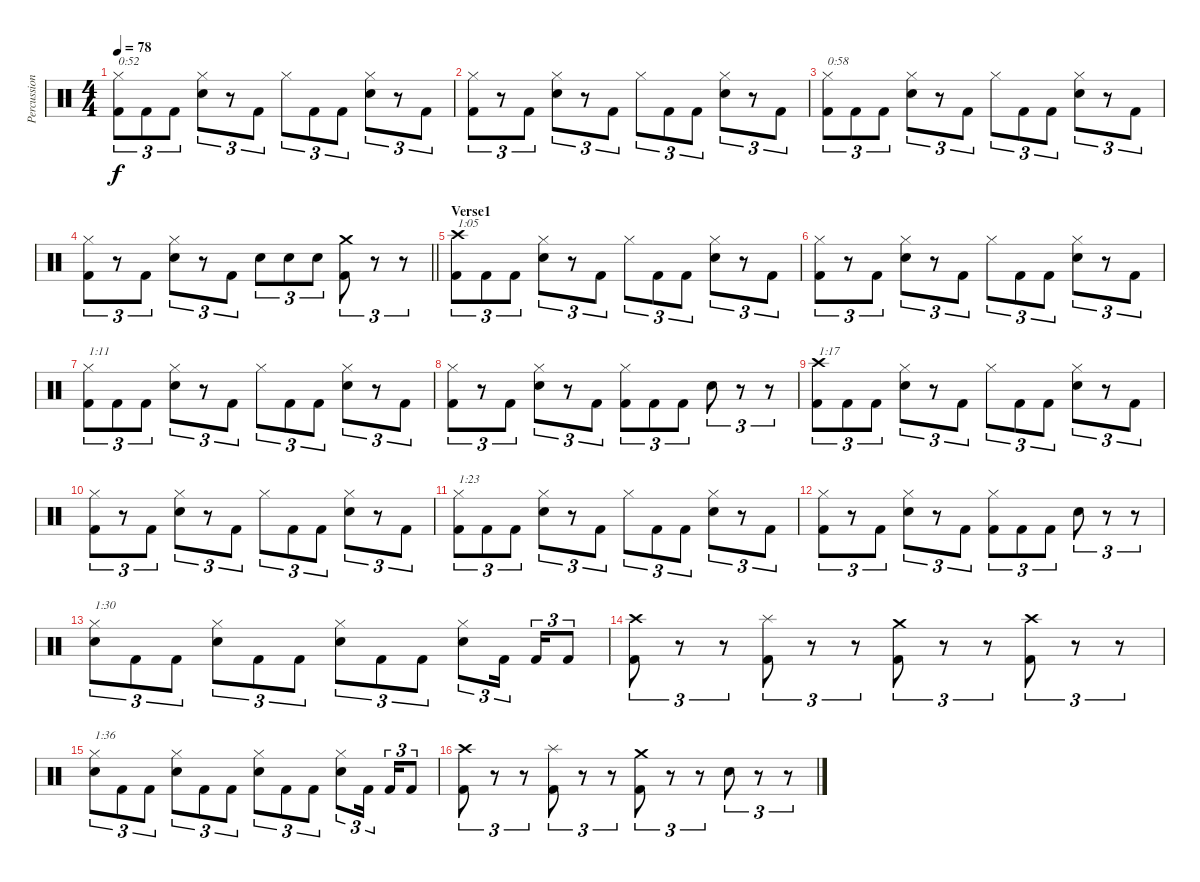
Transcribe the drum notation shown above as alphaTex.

\track ("Percussion" "Percussion") {instrument percussion}
\staff {score}
\articulation defaults
\ts (4 4)
\tempo 78
\clef neutral
\ks c
("Hi-Hat (closed)" "Kick (hit) 2").8{tu (3 2) txt "0:52" dy f} "Kick (hit) 2".8{tu (3 2)} "Kick (hit) 2".8{tu (3 2)} ("Hi-Hat (closed)" "Electric Snare (hit)").8{tu (3 2)} r.8{tu (3 2)} "Kick (hit) 2".8{tu (3 2)} "Hi-Hat (closed)".8{tu (3 2)} "Kick (hit) 2".8{tu (3 2)} "Kick (hit) 2".8{tu (3 2)} ("Hi-Hat (closed)" "Electric Snare (hit)").8{tu (3 2)} r.8{tu (3 2)} "Kick (hit) 2".8{tu (3 2)} |
("Hi-Hat (closed)" "Kick (hit) 2").8{tu (3 2)} r.8{tu (3 2)} "Kick (hit) 2".8{tu (3 2)} ("Hi-Hat (closed)" "Electric Snare (hit)").8{tu (3 2)} r.8{tu (3 2)} "Kick (hit) 2".8{tu (3 2)} "Hi-Hat (closed)".8{tu (3 2)} "Kick (hit) 2".8{tu (3 2)} "Kick (hit) 2".8{tu (3 2)} ("Hi-Hat (closed)" "Electric Snare (hit)").8{tu (3 2)} r.8{tu (3 2)} "Kick (hit) 2".8{tu (3 2)} |
("Hi-Hat (closed)" "Kick (hit) 2").8{tu (3 2) txt "0:58"} "Kick (hit) 2".8{tu (3 2)} "Kick (hit) 2".8{tu (3 2)} ("Hi-Hat (closed)" "Electric Snare (hit)").8{tu (3 2)} r.8{tu (3 2)} "Kick (hit) 2".8{tu (3 2)} "Hi-Hat (closed)".8{tu (3 2)} "Kick (hit) 2".8{tu (3 2)} "Kick (hit) 2".8{tu (3 2)} ("Hi-Hat (closed)" "Electric Snare (hit)").8{tu (3 2)} r.8{tu (3 2)} "Kick (hit) 2".8{tu (3 2)} |
\barLineRight lightlight
("Hi-Hat (closed)" "Kick (hit) 2").8{tu (3 2)} r.8{tu (3 2)} "Kick (hit) 2".8{tu (3 2)} ("Hi-Hat (closed)" "Electric Snare (hit)").8{tu (3 2)} r.8{tu (3 2)} "Kick (hit) 2".8{tu (3 2)} "Electric Snare (hit)".8{tu (3 2)} "Electric Snare (hit)".8{tu (3 2)} "Electric Snare (hit)".8{tu (3 2)} ("Crash medium (hit)" "Kick (hit) 2").8{tu (3 2)} r.8{tu (3 2)} r.8{tu (3 2)} |
\section ("" "Verse1")
("Crash high (hit)" "Kick (hit) 2").8{tu (3 2) txt "1:05"} "Kick (hit) 2".8{tu (3 2)} "Kick (hit) 2".8{tu (3 2)} ("Hi-Hat (closed)" "Electric Snare (hit)").8{tu (3 2)} r.8{tu (3 2)} "Kick (hit) 2".8{tu (3 2)} "Hi-Hat (closed)".8{tu (3 2)} "Kick (hit) 2".8{tu (3 2)} "Kick (hit) 2".8{tu (3 2)} ("Hi-Hat (closed)" "Electric Snare (hit)").8{tu (3 2)} r.8{tu (3 2)} "Kick (hit) 2".8{tu (3 2)} |
("Hi-Hat (closed)" "Kick (hit) 2").8{tu (3 2)} r.8{tu (3 2)} "Kick (hit) 2".8{tu (3 2)} ("Hi-Hat (closed)" "Electric Snare (hit)").8{tu (3 2)} r.8{tu (3 2)} "Kick (hit) 2".8{tu (3 2)} "Hi-Hat (closed)".8{tu (3 2)} "Kick (hit) 2".8{tu (3 2)} "Kick (hit) 2".8{tu (3 2)} ("Hi-Hat (closed)" "Electric Snare (hit)").8{tu (3 2)} r.8{tu (3 2)} "Kick (hit) 2".8{tu (3 2)} |
("Hi-Hat (closed)" "Kick (hit) 2").8{tu (3 2) txt "1:11"} "Kick (hit) 2".8{tu (3 2)} "Kick (hit) 2".8{tu (3 2)} ("Hi-Hat (closed)" "Electric Snare (hit)").8{tu (3 2)} r.8{tu (3 2)} "Kick (hit) 2".8{tu (3 2)} "Hi-Hat (closed)".8{tu (3 2)} "Kick (hit) 2".8{tu (3 2)} "Kick (hit) 2".8{tu (3 2)} ("Hi-Hat (closed)" "Electric Snare (hit)").8{tu (3 2)} r.8{tu (3 2)} "Kick (hit) 2".8{tu (3 2)} |
("Hi-Hat (closed)" "Kick (hit) 2").8{tu (3 2)} r.8{tu (3 2)} "Kick (hit) 2".8{tu (3 2)} ("Hi-Hat (closed)" "Electric Snare (hit)").8{tu (3 2)} r.8{tu (3 2)} "Kick (hit) 2".8{tu (3 2)} ("Hi-Hat (closed)" "Kick (hit) 2").8{tu (3 2)} "Kick (hit) 2".8{tu (3 2)} "Kick (hit) 2".8{tu (3 2)} "Electric Snare (hit)".8{tu (3 2)} r.8{tu (3 2)} r.8{tu (3 2)} |
("Crash high (hit)" "Kick (hit) 2").8{tu (3 2) txt "1:17"} "Kick (hit) 2".8{tu (3 2)} "Kick (hit) 2".8{tu (3 2)} ("Hi-Hat (closed)" "Electric Snare (hit)").8{tu (3 2)} r.8{tu (3 2)} "Kick (hit) 2".8{tu (3 2)} "Hi-Hat (closed)".8{tu (3 2)} "Kick (hit) 2".8{tu (3 2)} "Kick (hit) 2".8{tu (3 2)} ("Hi-Hat (closed)" "Electric Snare (hit)").8{tu (3 2)} r.8{tu (3 2)} "Kick (hit) 2".8{tu (3 2)} |
("Hi-Hat (closed)" "Kick (hit) 2").8{tu (3 2)} r.8{tu (3 2)} "Kick (hit) 2".8{tu (3 2)} ("Hi-Hat (closed)" "Electric Snare (hit)").8{tu (3 2)} r.8{tu (3 2)} "Kick (hit) 2".8{tu (3 2)} "Hi-Hat (closed)".8{tu (3 2)} "Kick (hit) 2".8{tu (3 2)} "Kick (hit) 2".8{tu (3 2)} ("Hi-Hat (closed)" "Electric Snare (hit)").8{tu (3 2)} r.8{tu (3 2)} "Kick (hit) 2".8{tu (3 2)} |
("Hi-Hat (closed)" "Kick (hit) 2").8{tu (3 2) txt "1:23"} "Kick (hit) 2".8{tu (3 2)} "Kick (hit) 2".8{tu (3 2)} ("Hi-Hat (closed)" "Electric Snare (hit)").8{tu (3 2)} r.8{tu (3 2)} "Kick (hit) 2".8{tu (3 2)} "Hi-Hat (closed)".8{tu (3 2)} "Kick (hit) 2".8{tu (3 2)} "Kick (hit) 2".8{tu (3 2)} ("Hi-Hat (closed)" "Electric Snare (hit)").8{tu (3 2)} r.8{tu (3 2)} "Kick (hit) 2".8{tu (3 2)} |
("Hi-Hat (closed)" "Kick (hit) 2").8{tu (3 2)} r.8{tu (3 2)} "Kick (hit) 2".8{tu (3 2)} ("Hi-Hat (closed)" "Electric Snare (hit)").8{tu (3 2)} r.8{tu (3 2)} "Kick (hit) 2".8{tu (3 2)} ("Hi-Hat (closed)" "Kick (hit) 2").8{tu (3 2)} "Kick (hit) 2".8{tu (3 2)} "Kick (hit) 2".8{tu (3 2)} "Electric Snare (hit)".8{tu (3 2)} r.8{tu (3 2)} r.8{tu (3 2)} |
("Hi-Hat (closed)" "Electric Snare (hit)").8{tu (3 2) txt "1:30"} "Kick (hit) 2".8{tu (3 2)} "Kick (hit) 2".8{tu (3 2)} ("Hi-Hat (closed)" "Electric Snare (hit)").8{tu (3 2)} "Kick (hit) 2".8{tu (3 2)} "Kick (hit) 2".8{tu (3 2)} ("Hi-Hat (closed)" "Electric Snare (hit)").8{tu (3 2)} "Kick (hit) 2".8{tu (3 2)} "Kick (hit) 2".8{tu (3 2)} ("Hi-Hat (closed)" "Electric Snare (hit)").8{tu (3 2)} "Kick (hit) 2".16{tu (3 2)} "Kick (hit) 2".16{tu (3 2)} "Kick (hit) 2".8{tu (3 2)} |
("Crash high (hit)" "Kick (hit) 2").8{tu (3 2)} r.8{tu (3 2)} r.8{tu (3 2)} ("Splash (hit)" "Kick (hit) 2").8{tu (3 2)} r.8{tu (3 2)} r.8{tu (3 2)} ("Crash medium (hit)" "Kick (hit) 2").8{tu (3 2)} r.8{tu (3 2)} r.8{tu (3 2)} ("Crash high (hit)" "Kick (hit) 2").8{tu (3 2)} r.8{tu (3 2)} r.8{tu (3 2)} |
("Hi-Hat (closed)" "Electric Snare (hit)").8{tu (3 2) txt "1:36"} "Kick (hit) 2".8{tu (3 2)} "Kick (hit) 2".8{tu (3 2)} ("Hi-Hat (closed)" "Electric Snare (hit)").8{tu (3 2)} "Kick (hit) 2".8{tu (3 2)} "Kick (hit) 2".8{tu (3 2)} ("Hi-Hat (closed)" "Electric Snare (hit)").8{tu (3 2)} "Kick (hit) 2".8{tu (3 2)} "Kick (hit) 2".8{tu (3 2)} ("Hi-Hat (closed)" "Electric Snare (hit)").8{tu (3 2)} "Kick (hit) 2".16{tu (3 2)} "Kick (hit) 2".16{tu (3 2)} "Kick (hit) 2".8{tu (3 2)} |
("Crash high (hit)" "Kick (hit) 2").8{tu (3 2)} r.8{tu (3 2)} r.8{tu (3 2)} ("Splash (hit)" "Kick (hit) 2").8{tu (3 2)} r.8{tu (3 2)} r.8{tu (3 2)} ("Crash medium (hit)" "Kick (hit) 2").8{tu (3 2)} r.8{tu (3 2)} r.8{tu (3 2)} "Electric Snare (hit)".8{tu (3 2)} r.8{tu (3 2)} r.8{tu (3 2)}
